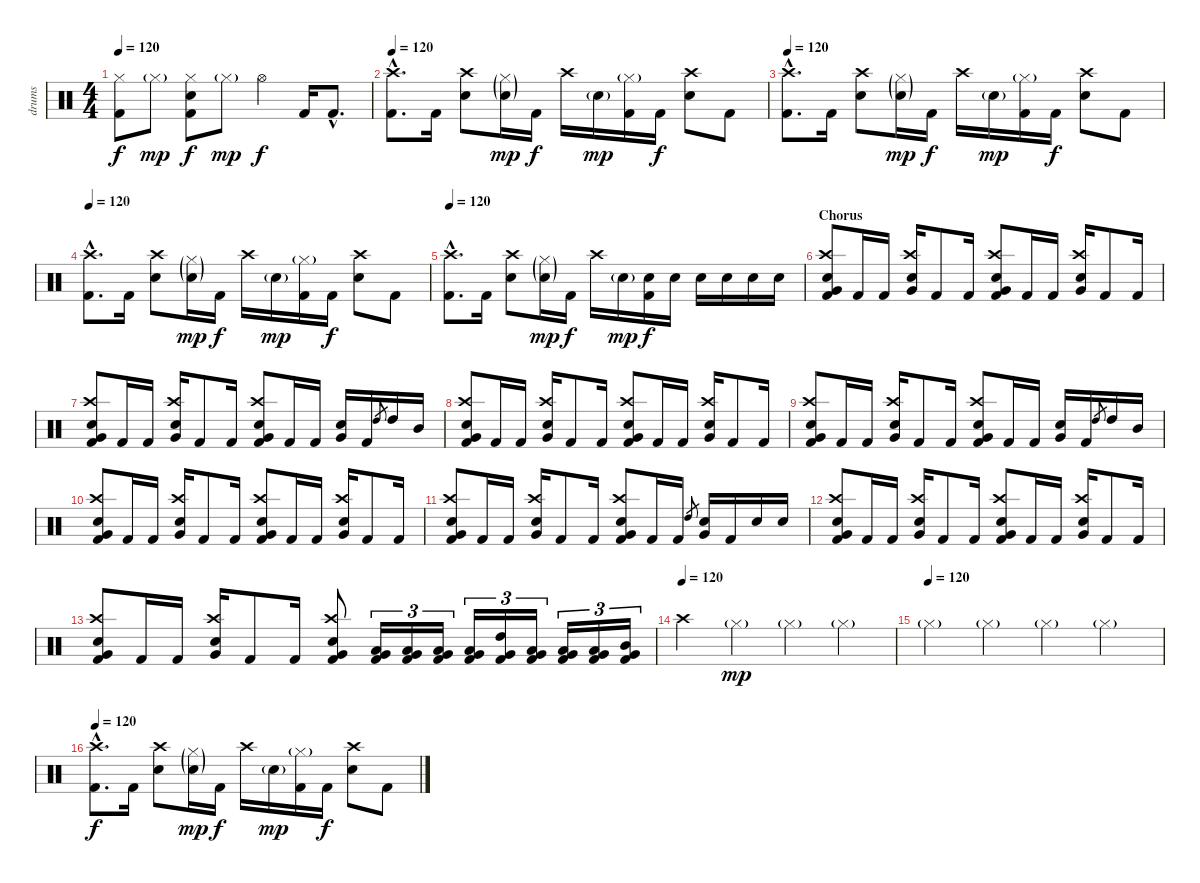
\track ("drums" "drums") {instrument percussion}
\staff {score}
\articulation defaults
\ts (4 4)
\tempo 120
\clef neutral
\ks c
("Hi-Hat (closed)" "Kick (hit) 2").8{dy f} "Hi-Hat (closed)"{g}.8{dy mp} ("Hi-Hat (closed)" "Electric Snare (hit)" "Kick (hit) 2").8{dy f} "Hi-Hat (closed)"{g}.8{dy mp} "Hi-Hat (open)".4{dy f} "Kick (hit) 2".16 "Kick (hit) 2"{hac}.8{d} |
\tempo 120
("Crash high (hit)"{hac} "Kick (hit) 2"{hac}).8{d} "Kick (hit) 2".16 ("Crash high (hit)" "Electric Snare (hit)").8 ("Hi-Hat (closed)"{g} "Electric Snare (hit)"{g}).16{dy mp} "Kick (hit) 2".16{dy f} "Crash high (hit)".16 "Electric Snare (hit)"{g}.16{dy mp} ("Hi-Hat (closed)"{g} "Kick (hit) 2").16 "Kick (hit) 2".16{dy f} ("Crash high (hit)" "Electric Snare (hit)").8 "Kick (hit) 2".8 |
\tempo 120
("Crash high (hit)"{hac} "Kick (hit) 2"{hac}).8{d} "Kick (hit) 2".16 ("Crash high (hit)" "Electric Snare (hit)").8 ("Hi-Hat (closed)"{g} "Electric Snare (hit)"{g}).16{dy mp} "Kick (hit) 2".16{dy f} "Crash high (hit)".16 "Electric Snare (hit)"{g}.16{dy mp} ("Hi-Hat (closed)"{g} "Kick (hit) 2").16 "Kick (hit) 2".16{dy f} ("Crash high (hit)" "Electric Snare (hit)").8 "Kick (hit) 2".8 |
\tempo 120
("Crash high (hit)"{hac} "Kick (hit) 2"{hac}).8{d} "Kick (hit) 2".16 ("Crash high (hit)" "Electric Snare (hit)").8 ("Hi-Hat (closed)"{g} "Electric Snare (hit)"{g}).16{dy mp} "Kick (hit) 2".16{dy f} "Crash high (hit)".16 "Electric Snare (hit)"{g}.16{dy mp} ("Hi-Hat (closed)"{g} "Kick (hit) 2").16 "Kick (hit) 2".16{dy f} ("Crash high (hit)" "Electric Snare (hit)").8 "Kick (hit) 2".8 |
\tempo 120
("Crash high (hit)"{hac} "Kick (hit) 2"{hac}).8{d} "Kick (hit) 2".16 ("Crash high (hit)" "Electric Snare (hit)").8 ("Hi-Hat (closed)"{g} "Electric Snare (hit)"{g}).16{dy mp} "Kick (hit) 2".16{dy f} "Crash high (hit)".16 "Electric Snare (hit)"{g}.16{dy mp} ("Electric Snare (hit)" "Kick (hit) 2").16{dy f} "Electric Snare (hit)".16 "Electric Snare (hit)".16 "Electric Snare (hit)".16 "Electric Snare (hit)".16 "Electric Snare (hit)".16 |
\section ("" "Chorus")
("Crash high (hit)" "Electric Snare (hit)" "Very Low Tom (hit)" "Kick (hit) 2").8 "Kick (hit) 2".16 "Kick (hit) 2".16 ("Crash high (hit)" "Electric Snare (hit)" "Very Low Tom (hit)").16 "Kick (hit) 2".8 "Kick (hit) 2".16 ("Crash high (hit)" "Electric Snare (hit)" "Very Low Tom (hit)" "Kick (hit) 2").8 "Kick (hit) 2".16 "Kick (hit) 2".16 ("Crash high (hit)" "Electric Snare (hit)" "Very Low Tom (hit)").16 "Kick (hit) 2".8 "Kick (hit) 2".16 |
("Crash high (hit)" "Electric Snare (hit)" "Very Low Tom (hit)" "Kick (hit) 2").8 "Kick (hit) 2".16 "Kick (hit) 2".16 ("Crash high (hit)" "Electric Snare (hit)" "Very Low Tom (hit)").16 "Kick (hit) 2".8 "Kick (hit) 2".16 ("Crash high (hit)" "Electric Snare (hit)" "Very Low Tom (hit)" "Kick (hit) 2").8 "Kick (hit) 2".16 "Kick (hit) 2".16 ("Electric Snare (hit)" "Very Low Tom (hit)").16 "Kick (hit) 2".16 "High Tom (hit)".8{gr} "High Tom (hit)".16 "Mid Tom (hit)".16 |
("Crash high (hit)" "Electric Snare (hit)" "Very Low Tom (hit)" "Kick (hit) 2").8 "Kick (hit) 2".16 "Kick (hit) 2".16 ("Crash high (hit)" "Electric Snare (hit)" "Very Low Tom (hit)").16 "Kick (hit) 2".8 "Kick (hit) 2".16 ("Crash high (hit)" "Electric Snare (hit)" "Very Low Tom (hit)" "Kick (hit) 2").8 "Kick (hit) 2".16 "Kick (hit) 2".16 ("Crash high (hit)" "Electric Snare (hit)" "Very Low Tom (hit)").16 "Kick (hit) 2".8 "Kick (hit) 2".16 |
("Crash high (hit)" "Electric Snare (hit)" "Very Low Tom (hit)" "Kick (hit) 2").8 "Kick (hit) 2".16 "Kick (hit) 2".16 ("Crash high (hit)" "Electric Snare (hit)" "Very Low Tom (hit)").16 "Kick (hit) 2".8 "Kick (hit) 2".16 ("Crash high (hit)" "Electric Snare (hit)" "Very Low Tom (hit)" "Kick (hit) 2").8 "Kick (hit) 2".16 "Kick (hit) 2".16 ("Electric Snare (hit)" "Very Low Tom (hit)").16 "Kick (hit) 2".16 "High Tom (hit)".8{gr} "High Tom (hit)".16 "Mid Tom (hit)".16 |
("Crash high (hit)" "Electric Snare (hit)" "Very Low Tom (hit)" "Kick (hit) 2").8 "Kick (hit) 2".16 "Kick (hit) 2".16 ("Crash high (hit)" "Electric Snare (hit)" "Very Low Tom (hit)").16 "Kick (hit) 2".8 "Kick (hit) 2".16 ("Crash high (hit)" "Electric Snare (hit)" "Very Low Tom (hit)" "Kick (hit) 2").8 "Kick (hit) 2".16 "Kick (hit) 2".16 ("Crash high (hit)" "Electric Snare (hit)" "Very Low Tom (hit)").16 "Kick (hit) 2".8 "Kick (hit) 2".16 |
("Crash high (hit)" "Electric Snare (hit)" "Very Low Tom (hit)" "Kick (hit) 2").8 "Kick (hit) 2".16 "Kick (hit) 2".16 ("Crash high (hit)" "Electric Snare (hit)" "Very Low Tom (hit)").16 "Kick (hit) 2".8 "Kick (hit) 2".16 ("Crash high (hit)" "Electric Snare (hit)" "Very Low Tom (hit)" "Kick (hit) 2").8 "Kick (hit) 2".16 "Kick (hit) 2".16 "High Tom (hit)".8{gr} ("Electric Snare (hit)" "Very Low Tom (hit)").16 "Kick (hit) 2".16 "Electric Snare (hit)".16 "Electric Snare (hit)".16 |
("Crash high (hit)" "Electric Snare (hit)" "Very Low Tom (hit)" "Kick (hit) 2").8 "Kick (hit) 2".16 "Kick (hit) 2".16 ("Crash high (hit)" "Electric Snare (hit)" "Very Low Tom (hit)").16 "Kick (hit) 2".8 "Kick (hit) 2".16 ("Crash high (hit)" "Electric Snare (hit)" "Very Low Tom (hit)" "Kick (hit) 2").8 "Kick (hit) 2".16 "Kick (hit) 2".16 ("Crash high (hit)" "Electric Snare (hit)" "Very Low Tom (hit)").16 "Kick (hit) 2".8 "Kick (hit) 2".16 |
("Crash high (hit)" "Electric Snare (hit)" "Very Low Tom (hit)" "Kick (hit) 2").8 "Kick (hit) 2".16 "Kick (hit) 2".16 ("Crash high (hit)" "Electric Snare (hit)" "Very Low Tom (hit)").16 "Kick (hit) 2".8 "Kick (hit) 2".16 ("Crash high (hit)" "Electric Snare (hit)" "Very Low Tom (hit)" "Kick (hit) 2").8 ("Low Tom (hit)" "Very Low Tom (hit)" "Kick (hit) 2").16{tu (3 2)} ("Low Tom (hit)" "Very Low Tom (hit)" "Kick (hit) 2").16{tu (3 2)} ("Low Tom (hit)" "Very Low Tom (hit)" "Kick (hit) 2").16{tu (3 2)} ("Low Tom (hit)" "Very Low Tom (hit)" "Kick (hit) 2").16{tu (3 2)} ("High Tom (hit)" "Very Low Tom (hit)" "Kick (hit) 2").16{tu (3 2)} ("Low Tom (hit)" "Very Low Tom (hit)" "Kick (hit) 2").16{tu (3 2)} ("Low Tom (hit)" "Very Low Tom (hit)" "Kick (hit) 2").16{tu (3 2)} ("Low Tom (hit)" "Very Low Tom (hit)" "Kick (hit) 2").16{tu (3 2)} ("Mid Tom (hit)" "Very Low Tom (hit)" "Kick (hit) 2").16{tu (3 2)} |
\tempo (120)
"Crash high (hit)".4 "Hi-Hat (closed)"{g}.4{dy mp} "Hi-Hat (closed)"{g}.4 "Hi-Hat (closed)"{g}.4 |
\tempo (120)
"Hi-Hat (closed)"{g}.4 "Hi-Hat (closed)"{g}.4 "Hi-Hat (closed)"{g}.4 "Hi-Hat (closed)"{g}.4 |
\tempo 120
("Crash high (hit)"{hac} "Kick (hit) 2"{hac}).8{d dy f} "Kick (hit) 2".16 ("Crash high (hit)" "Electric Snare (hit)").8 ("Hi-Hat (closed)"{g} "Electric Snare (hit)"{g}).16{dy mp} "Kick (hit) 2".16{dy f} "Crash high (hit)".16 "Electric Snare (hit)"{g}.16{dy mp} ("Hi-Hat (closed)"{g} "Kick (hit) 2").16 "Kick (hit) 2".16{dy f} ("Crash high (hit)" "Electric Snare (hit)").8 "Kick (hit) 2".8
